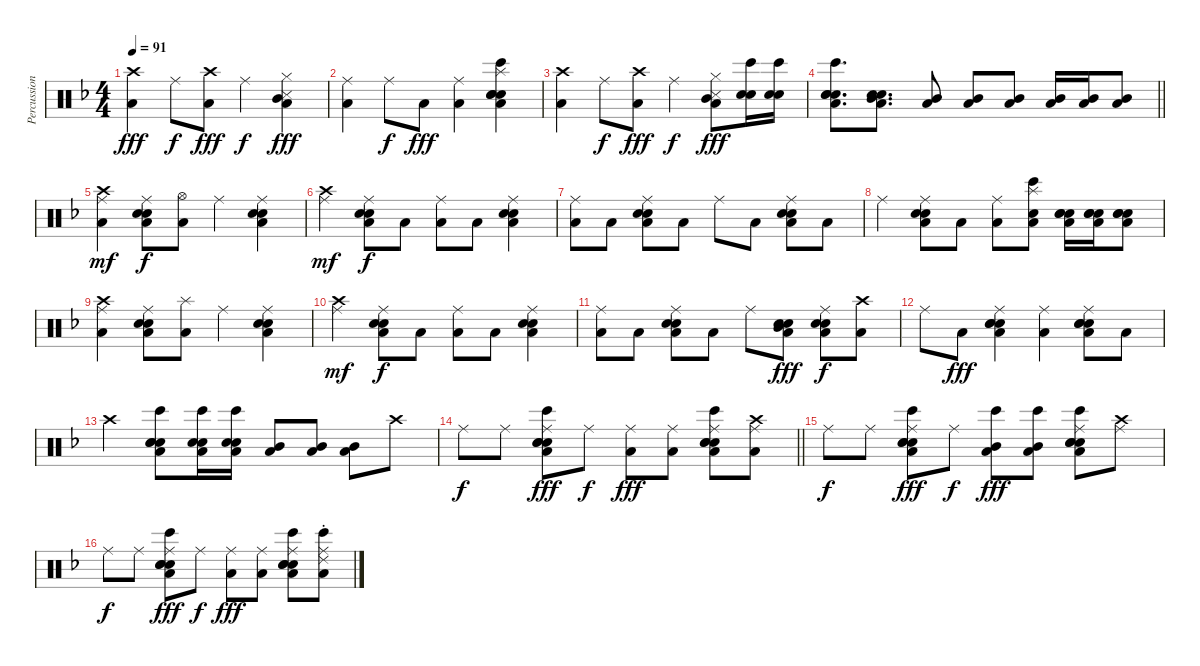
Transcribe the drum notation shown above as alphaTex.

\track ("Percussion" "Percussion") {instrument percussion}
\staff {score}
\articulation defaults
\ts (4 4)
\tempo 91
\clef neutral
\ks f
("Low Floor Tom (hit)" "Crash high (hit)").4{dy fff} "Ride (middle)".8{dy f} ("Low Floor Tom (hit)" "Crash high (hit)").8{dy fff} "Ride (middle)".4{dy f} ("Mid Tom (hit)" "Snare (side stick) 3" "Low Floor Tom (hit)" "Hi-Hat (closed)").4{dy fff} |
("Ride (middle)" "Low Floor Tom (hit)").4 "Ride (middle)".8{dy f} "Low Floor Tom (hit)".8{dy fff} ("Low Floor Tom (hit)" "Ride (middle)").4 ("Splash (hit)" "Low Floor Tom (hit)" "Snare (hit) 2" "Electric Snare (hit)" "Hand Clap (hit)" "Bongo High (hit)").4 |
("Low Floor Tom (hit)" "Crash high (hit)").4 "Ride (middle)".8{dy f} ("Low Floor Tom (hit)" "Crash high (hit)").8{dy fff} "Ride (middle)".4{dy f} ("Mid Tom (hit)" "Snare (side stick) 3" "Low Floor Tom (hit)" "Hi-Hat (closed)").8{dy fff} ("Snare (hit) 2" "Hand Clap (hit)" "Bongo High (hit)").16 ("Snare (hit) 2" "Hand Clap (hit)" "Bongo High (hit)").16 |
\barLineRight lightlight
("Low Floor Tom (hit)" "Electric Snare (hit)" "Snare (hit) 2" "Hand Clap (hit)" "Bongo High (hit)").8{d} ("Electric Snare (hit)" "Low Floor Tom (hit)" "Snare (hit) 2" "Mid Tom (hit)").8{d} ("Low Floor Tom (hit)" "Mid Tom (hit)").8 ("Low Floor Tom (hit)" "Mid Tom (hit)").8 ("Low Floor Tom (hit)" "Mid Tom (hit)").8 ("Low Floor Tom (hit)" "Mid Tom (hit)").16 ("Low Floor Tom (hit)" "Mid Tom (hit)").16 ("Low Floor Tom (hit)" "Mid Tom (hit)").8 |
("Low Floor Tom (hit)" "Crash high (hit)" "Ride (middle)").4{dy mf} ("Low Floor Tom (hit)" "Snare (hit) 2" "Electric Snare (hit)" "Ride (middle)").8{dy f} ("Low Floor Tom (hit)" "Hi-Hat (open)").8 "Ride (middle)".4 ("Electric Snare (hit)" "Snare (hit) 2" "Low Floor Tom (hit)" "Ride (middle)").4 |
("Crash high (hit)" "Ride (middle)").4{dy mf} ("Low Floor Tom (hit)" "Snare (hit) 2" "Electric Snare (hit)" "Ride (middle)").8{dy f} "Low Floor Tom (hit)".8 ("Low Floor Tom (hit)" "Ride (middle)").8 "Low Floor Tom (hit)".8 ("Electric Snare (hit)" "Low Floor Tom (hit)" "Ride (middle)" "Snare (hit) 2").4 |
("Low Floor Tom (hit)" "Ride (middle)").8 "Low Floor Tom (hit)".8 ("Electric Snare (hit)" "Low Floor Tom (hit)" "Snare (hit) 2" "Ride (middle)").8 "Low Floor Tom (hit)".8 "Ride (middle)".8 "Low Floor Tom (hit)".8 ("Electric Snare (hit)" "Low Floor Tom (hit)" "Snare (hit) 2" "Ride (middle)").8 "Low Floor Tom (hit)".8 |
"Ride (middle)".4 ("Electric Snare (hit)" "Low Floor Tom (hit)" "Snare (hit) 2" "Ride (middle)").8 "Low Floor Tom (hit)".8 ("Low Floor Tom (hit)" "Ride (middle)").8 ("Bongo High (hit)" "Low Floor Tom (hit)" "Snare (hit) 2" "Splash (hit)").8 ("Low Floor Tom (hit)" "Snare (hit) 2" "Electric Snare (hit)" "Hand Clap (hit)").16 ("Low Floor Tom (hit)" "Snare (hit) 2" "Electric Snare (hit)" "Hand Clap (hit)").16 ("Low Floor Tom (hit)" "Snare (hit) 2" "Electric Snare (hit)" "Hand Clap (hit)").8 |
("Low Floor Tom (hit)" "Crash high (hit)" "Ride (middle)").4 ("Low Floor Tom (hit)" "Snare (hit) 2" "Electric Snare (hit)" "Ride (middle)").8 ("Low Floor Tom (hit)" "Splash (hit)").8 "Ride (middle)".4 ("Electric Snare (hit)" "Snare (hit) 2" "Low Floor Tom (hit)" "Ride (middle)").4 |
("Crash high (hit)" "Ride (middle)").4{dy mf} ("Low Floor Tom (hit)" "Snare (hit) 2" "Electric Snare (hit)" "Ride (middle)").8{dy f} "Low Floor Tom (hit)".8 ("Low Floor Tom (hit)" "Ride (middle)").8 "Low Floor Tom (hit)".8 ("Electric Snare (hit)" "Low Floor Tom (hit)" "Ride (middle)" "Snare (hit) 2").4 |
("Low Floor Tom (hit)" "Ride (middle)").8 "Low Floor Tom (hit)".8 ("Electric Snare (hit)" "Low Floor Tom (hit)" "Snare (hit) 2" "Ride (middle)").8 "Low Floor Tom (hit)".8 "Ride (middle)".8 ("Electric Snare (hit)" "Low Floor Tom (hit)" "Mid Tom (hit)" "Snare (hit) 2").8{dy fff} ("Electric Snare (hit)" "Low Floor Tom (hit)" "Snare (hit) 2" "Ride (middle)").8{dy f} ("Low Floor Tom (hit)" "Crash high (hit)").8 |
"Ride (middle)".8 "Low Floor Tom (hit)".8{dy fff} ("Electric Snare (hit)" "Low Floor Tom (hit)" "Ride (middle)" "Snare (hit) 2" "Hand Clap (hit)").4 ("Low Floor Tom (hit)" "Ride (middle)").4 ("Electric Snare (hit)" "Low Floor Tom (hit)" "Ride (middle)" "Snare (hit) 2" "Hand Clap (hit)").8 "Low Floor Tom (hit)".8 |
"Crash high (hit)".4 ("Hand Clap (hit)" "Low Floor Tom (hit)" "Snare (hit) 2" "Electric Snare (hit)" "Bongo High (hit)").8 ("Low Floor Tom (hit)" "Snare (hit) 2" "Hand Clap (hit)" "Bongo High (hit)").16 ("Low Floor Tom (hit)" "Snare (hit) 2" "Hand Clap (hit)" "Bongo High (hit)").16 ("Low Floor Tom (hit)" "Mid Tom (hit)").8 ("Low Floor Tom (hit)" "Mid Tom (hit)").8 ("Low Floor Tom (hit)" "Mid Tom (hit)").8 "Crash high (hit)".8 |
\barLineRight lightlight "Ride (middle)".8{dy f} "Ride (middle)".8
("Low Floor Tom (hit)" "Electric Snare (hit)" "Ride (middle)" "Snare (hit) 2" "Hand Clap (hit)" "Bongo High (hit)").8{dy fff} "Ride (middle)".8{dy f} ("Ride (middle)" "Low Floor Tom (hit)").8{dy fff} ("Ride (middle)" "Low Floor Tom (hit)").8 ("Bongo High (hit)" "Hand Clap (hit)" "Ride (middle)" "Low Floor Tom (hit)" "Snare (hit) 2" "Electric Snare (hit)").8 ("Low Floor Tom (hit)" "Ride (middle)" "Crash high (hit)").8 |
"Ride (middle)".8{dy f} "Ride (middle)".8 ("Low Floor Tom (hit)" "Electric Snare (hit)" "Ride (middle)" "Snare (hit) 2" "Hand Clap (hit)" "Bongo High (hit)").8{dy fff} "Ride (middle)".8{dy f} ("Low Floor Tom (hit)" "Mid Tom (hit)" "Bongo High (hit)").8{dy fff} ("Low Floor Tom (hit)" "Mid Tom (hit)" "Bongo High (hit)").8 ("Bongo High (hit)" "Hand Clap (hit)" "Ride (middle)" "Low Floor Tom (hit)" "Snare (hit) 2" "Electric Snare (hit)").8 ("Ride (middle)" "Crash high (hit)").8 |
"Ride (middle)".8{dy f} "Ride (middle)".8 ("Low Floor Tom (hit)" "Electric Snare (hit)" "Ride (middle)" "Snare (hit) 2" "Hand Clap (hit)" "Bongo High (hit)").8{dy fff} "Ride (middle)".8{dy f} ("Ride (middle)" "Low Floor Tom (hit)").8{dy fff} ("Ride (middle)" "Low Floor Tom (hit)").8 ("Bongo High (hit)" "Hand Clap (hit)" "Ride (middle)" "Low Floor Tom (hit)" "Snare (hit) 2" "Electric Snare (hit)").8 ("Low Floor Tom (hit)" "Ride (middle)" "Bongo High (hit)" "Ride (choke) 2").8
